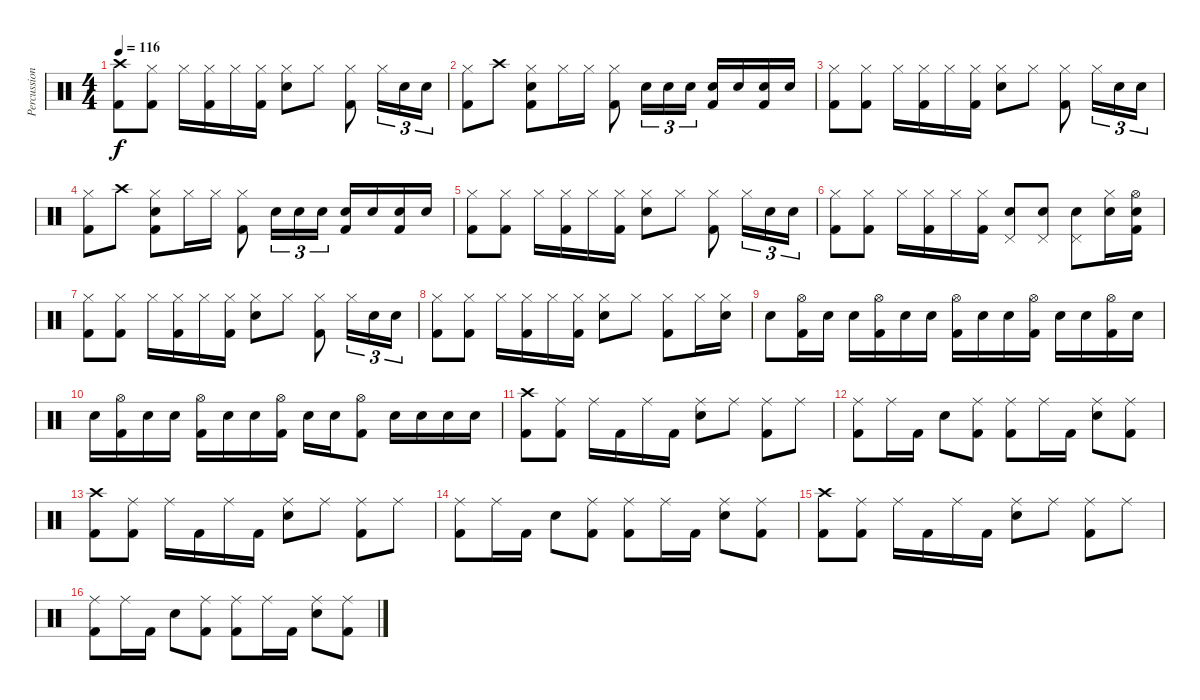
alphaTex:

\track ("Percussion" "Percussion") {instrument percussion}
\staff {score}
\articulation defaults
\ts (4 4)
\tempo 116
\clef neutral
\ks c
("Crash high (hit)" "Kick (hit) 2").8{dy f} ("Hi-Hat (closed)" "Kick (hit) 2").8 "Hi-Hat (closed)".16 ("Hi-Hat (closed)" "Kick (hit) 2").16 "Hi-Hat (closed)".16 ("Hi-Hat (closed)" "Kick (hit) 2").16 ("Hi-Hat (closed)" "Snare (hit) 2").8 "Hi-Hat (closed)".8 ("Hi-Hat (closed)" "Kick (hit) 2").8 "Hi-Hat (closed)".16{tu (3 2)} "Snare (hit) 2".16{tu (3 2)} "Snare (hit) 2".16{tu (3 2)} |
("Hi-Hat (closed)" "Kick (hit) 2").8 "Crash high (hit)".8 ("Hi-Hat (closed)" "Snare (hit) 2" "Kick (hit) 2").8 "Hi-Hat (closed)".16 "Hi-Hat (closed)".16 ("Hi-Hat (closed)" "Kick (hit) 2").8 "Snare (hit) 2".16{tu (3 2)} "Snare (hit) 2".16{tu (3 2)} "Snare (hit) 2".16{tu (3 2)} ("Snare (hit) 2" "Kick (hit) 2").16 "Snare (hit) 2".16 ("Snare (hit) 2" "Kick (hit) 2").16 "Snare (hit) 2".16 |
("Hi-Hat (closed)" "Kick (hit) 2").8 ("Hi-Hat (closed)" "Kick (hit) 2").8 "Hi-Hat (closed)".16 ("Hi-Hat (closed)" "Kick (hit) 2").16 "Hi-Hat (closed)".16 ("Hi-Hat (closed)" "Kick (hit) 2").16 ("Hi-Hat (closed)" "Snare (hit) 2").8 "Hi-Hat (closed)".8 ("Hi-Hat (closed)" "Kick (hit) 2").8 "Hi-Hat (closed)".16{tu (3 2)} "Snare (hit) 2".16{tu (3 2)} "Snare (hit) 2".16{tu (3 2)} |
("Hi-Hat (closed)" "Kick (hit) 2").8 "Crash high (hit)".8 ("Hi-Hat (closed)" "Snare (hit) 2" "Kick (hit) 2").8 "Hi-Hat (closed)".16 "Hi-Hat (closed)".16 ("Hi-Hat (closed)" "Kick (hit) 2").8 "Snare (hit) 2".16{tu (3 2)} "Snare (hit) 2".16{tu (3 2)} "Snare (hit) 2".16{tu (3 2)} ("Snare (hit) 2" "Kick (hit) 2").16 "Snare (hit) 2".16 ("Snare (hit) 2" "Kick (hit) 2").16 "Snare (hit) 2".16 |
("Hi-Hat (closed)" "Kick (hit) 2").8 ("Hi-Hat (closed)" "Kick (hit) 2").8 "Hi-Hat (closed)".16 ("Hi-Hat (closed)" "Kick (hit) 2").16 "Hi-Hat (closed)".16 ("Hi-Hat (closed)" "Kick (hit) 2").16 ("Hi-Hat (closed)" "Snare (hit) 2").8 "Hi-Hat (closed)".8 ("Hi-Hat (closed)" "Kick (hit) 2").8 "Hi-Hat (closed)".16{tu (3 2)} "Snare (hit) 2".16{tu (3 2)} "Snare (hit) 2".16{tu (3 2)} |
("Hi-Hat (closed)" "Kick (hit) 2").8 ("Hi-Hat (closed)" "Kick (hit) 2").8 "Hi-Hat (closed)".16 ("Hi-Hat (closed)" "Kick (hit) 2").16 "Hi-Hat (closed)".16 ("Hi-Hat (closed)" "Kick (hit) 2").16 ("Pedal Hi-Hat (hit)" "Snare (hit) 2").8 ("Pedal Hi-Hat (hit)" "Snare (hit) 2").8 ("Pedal Hi-Hat (hit)" "Snare (hit) 2").8 ("Hi-Hat (closed)" "Snare (hit) 2").16 ("Hi-Hat (open)" "Snare (hit) 2" "Kick (hit) 2").16 |
("Hi-Hat (closed)" "Kick (hit) 2").8 ("Hi-Hat (closed)" "Kick (hit) 2").8 "Hi-Hat (closed)".16 ("Hi-Hat (closed)" "Kick (hit) 2").16 "Hi-Hat (closed)".16 ("Hi-Hat (closed)" "Kick (hit) 2").16 ("Hi-Hat (closed)" "Snare (hit) 2").8 "Hi-Hat (closed)".8 ("Hi-Hat (closed)" "Kick (hit) 2").8 "Hi-Hat (closed)".16{tu (3 2)} "Snare (hit) 2".16{tu (3 2)} "Snare (hit) 2".16{tu (3 2)} |
("Hi-Hat (closed)" "Kick (hit) 2").8 ("Hi-Hat (closed)" "Kick (hit) 2").8 "Hi-Hat (closed)".16 ("Hi-Hat (closed)" "Kick (hit) 2").16 "Hi-Hat (closed)".16 ("Hi-Hat (closed)" "Kick (hit) 2").16 ("Hi-Hat (closed)" "Snare (hit) 2").8 "Hi-Hat (closed)".8 ("Hi-Hat (closed)" "Kick (hit) 2").8 "Hi-Hat (closed)".16 ("Hi-Hat (closed)" "Snare (hit) 2").16 |
"Snare (hit) 2".8 ("Hi-Hat (open)" "Kick (hit) 2").16 "Snare (hit) 2".16 "Snare (hit) 2".16 ("Hi-Hat (open)" "Kick (hit) 2").16 "Snare (hit) 2".16 "Snare (hit) 2".16 ("Hi-Hat (open)" "Kick (hit) 2").16 "Snare (hit) 2".16 "Snare (hit) 2".16 ("Hi-Hat (open)" "Kick (hit) 2").16 "Snare (hit) 2".16 "Snare (hit) 2".16 ("Hi-Hat (open)" "Kick (hit) 2").16 "Snare (hit) 2".16 |
"Snare (hit) 2".16 ("Hi-Hat (open)" "Kick (hit) 2").16 "Snare (hit) 2".16 "Snare (hit) 2".16 ("Hi-Hat (open)" "Kick (hit) 2").16 "Snare (hit) 2".16 "Snare (hit) 2".16 ("Hi-Hat (open)" "Kick (hit) 2").16 "Snare (hit) 2".16 "Snare (hit) 2".16 ("Hi-Hat (open)" "Kick (hit) 2").8 "Snare (hit) 2".16 "Snare (hit) 2".16 "Snare (hit) 2".16 "Snare (hit) 2".16 |
("Crash high (hit)" "Kick (hit) 2").8 ("Ride (middle)" "Kick (hit) 2").8 "Ride (middle)".16 "Kick (hit) 2".16 "Ride (middle)".16 "Kick (hit) 2".16 ("Ride (middle)" "Snare (hit) 2").8 "Ride (middle)".8 ("Ride (middle)" "Kick (hit) 2").8 "Ride (middle)".8 |
("Ride (middle)" "Kick (hit) 2").8 "Ride (middle)".16 "Kick (hit) 2".16 "Snare (hit) 2".8 ("Ride (middle)" "Kick (hit) 2").8 ("Ride (middle)" "Kick (hit) 2").8 "Ride (middle)".16 "Kick (hit) 2".16 ("Ride (middle)" "Snare (hit) 2").8 ("Ride (middle)" "Kick (hit) 2").8 |
("Crash high (hit)" "Kick (hit) 2").8 ("Ride (middle)" "Kick (hit) 2").8 "Ride (middle)".16 "Kick (hit) 2".16 "Ride (middle)".16 "Kick (hit) 2".16 ("Ride (middle)" "Snare (hit) 2").8 "Ride (middle)".8 ("Ride (middle)" "Kick (hit) 2").8 "Ride (middle)".8 |
("Ride (middle)" "Kick (hit) 2").8 "Ride (middle)".16 "Kick (hit) 2".16 "Snare (hit) 2".8 ("Ride (middle)" "Kick (hit) 2").8 ("Ride (middle)" "Kick (hit) 2").8 "Ride (middle)".16 "Kick (hit) 2".16 ("Ride (middle)" "Snare (hit) 2").8 ("Ride (middle)" "Kick (hit) 2").8 |
("Crash high (hit)" "Kick (hit) 2").8 ("Ride (middle)" "Kick (hit) 2").8 "Ride (middle)".16 "Kick (hit) 2".16 "Ride (middle)".16 "Kick (hit) 2".16 ("Ride (middle)" "Snare (hit) 2").8 "Ride (middle)".8 ("Ride (middle)" "Kick (hit) 2").8 "Ride (middle)".8 |
("Ride (middle)" "Kick (hit) 2").8 "Ride (middle)".16 "Kick (hit) 2".16 "Snare (hit) 2".8 ("Ride (middle)" "Kick (hit) 2").8 ("Ride (middle)" "Kick (hit) 2").8 "Ride (middle)".16 "Kick (hit) 2".16 ("Ride (middle)" "Snare (hit) 2").8 ("Ride (middle)" "Kick (hit) 2").8
